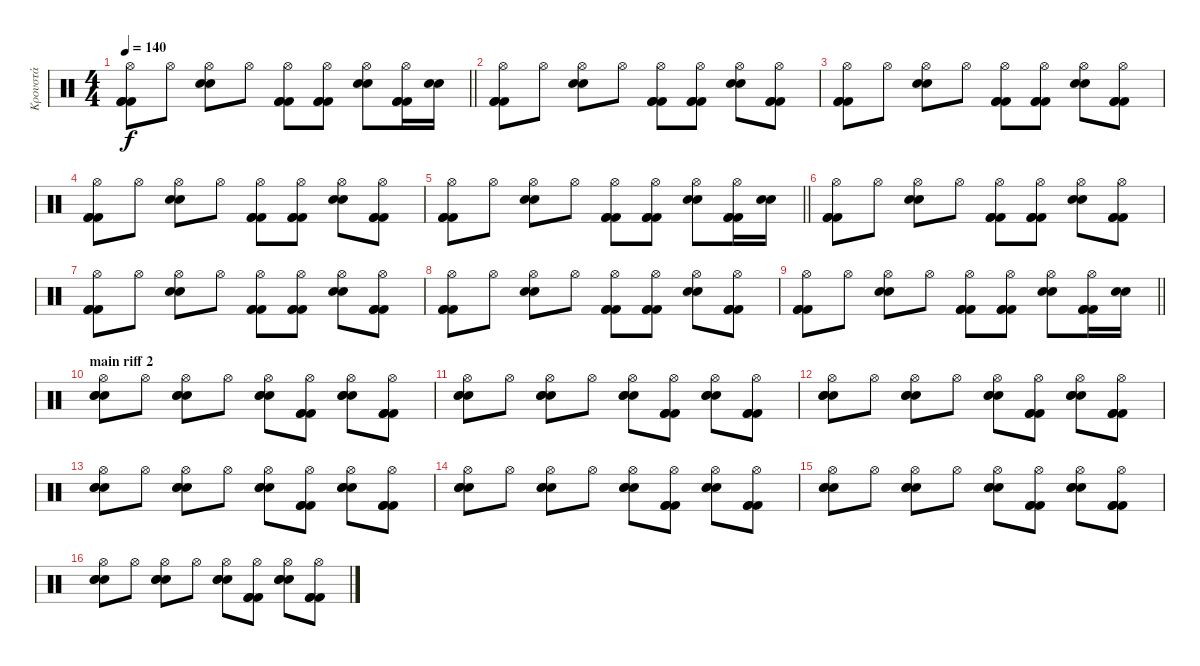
\track ("Κρουστά" "Κρουστά") {instrument percussion}
\staff {score}
\articulation defaults
\ts (4 4)
\tempo 140
\clef neutral
\barLineRight lightlight
\ks c
("Kick (hit) 2" "Hi-Hat (open)" "Kick (hit) 2" "Kick (hit) 2").8{dy f} "Hi-Hat (open)".8 ("Electric Snare (hit)" "Hi-Hat (open)" "Electric Snare (hit)").8 "Hi-Hat (open)".8 ("Kick (hit) 2" "Kick (hit) 2" "Kick (hit) 2" "Hi-Hat (open)").8 ("Kick (hit) 2" "Kick (hit) 2" "Kick (hit) 2" "Hi-Hat (open)").8 ("Electric Snare (hit)" "Electric Snare (hit)" "Hi-Hat (open)").8 ("Kick (hit) 2" "Kick (hit) 2" "Kick (hit) 2" "Hi-Hat (open)").16 ("Electric Snare (hit)" "Electric Snare (hit)").16 |
("Kick (hit) 2" "Hi-Hat (open)" "Kick (hit) 2" "Kick (hit) 2").8 "Hi-Hat (open)".8 ("Electric Snare (hit)" "Hi-Hat (open)" "Electric Snare (hit)").8 "Hi-Hat (open)".8 ("Kick (hit) 2" "Kick (hit) 2" "Kick (hit) 2" "Hi-Hat (open)").8 ("Kick (hit) 2" "Kick (hit) 2" "Kick (hit) 2" "Hi-Hat (open)").8 ("Electric Snare (hit)" "Electric Snare (hit)" "Hi-Hat (open)").8 ("Kick (hit) 2" "Kick (hit) 2" "Kick (hit) 2" "Hi-Hat (open)").8 |
("Kick (hit) 2" "Hi-Hat (open)" "Kick (hit) 2" "Kick (hit) 2").8 "Hi-Hat (open)".8 ("Electric Snare (hit)" "Hi-Hat (open)" "Electric Snare (hit)").8 "Hi-Hat (open)".8 ("Kick (hit) 2" "Kick (hit) 2" "Kick (hit) 2" "Hi-Hat (open)").8 ("Kick (hit) 2" "Kick (hit) 2" "Kick (hit) 2" "Hi-Hat (open)").8 ("Electric Snare (hit)" "Electric Snare (hit)" "Hi-Hat (open)").8 ("Kick (hit) 2" "Kick (hit) 2" "Kick (hit) 2" "Hi-Hat (open)").8 |
("Kick (hit) 2" "Hi-Hat (open)" "Kick (hit) 2" "Kick (hit) 2").8 "Hi-Hat (open)".8 ("Electric Snare (hit)" "Hi-Hat (open)" "Electric Snare (hit)").8 "Hi-Hat (open)".8 ("Kick (hit) 2" "Kick (hit) 2" "Kick (hit) 2" "Hi-Hat (open)").8 ("Kick (hit) 2" "Kick (hit) 2" "Kick (hit) 2" "Hi-Hat (open)").8 ("Electric Snare (hit)" "Electric Snare (hit)" "Hi-Hat (open)").8 ("Kick (hit) 2" "Kick (hit) 2" "Kick (hit) 2" "Hi-Hat (open)").8 |
\barLineRight lightlight
("Kick (hit) 2" "Hi-Hat (open)" "Kick (hit) 2" "Kick (hit) 2").8 "Hi-Hat (open)".8 ("Electric Snare (hit)" "Hi-Hat (open)" "Electric Snare (hit)").8 "Hi-Hat (open)".8 ("Kick (hit) 2" "Kick (hit) 2" "Kick (hit) 2" "Hi-Hat (open)").8 ("Kick (hit) 2" "Kick (hit) 2" "Kick (hit) 2" "Hi-Hat (open)").8 ("Electric Snare (hit)" "Electric Snare (hit)" "Hi-Hat (open)").8 ("Kick (hit) 2" "Kick (hit) 2" "Kick (hit) 2" "Hi-Hat (open)").16 ("Electric Snare (hit)" "Electric Snare (hit)").16 |
("Kick (hit) 2" "Hi-Hat (open)" "Kick (hit) 2" "Kick (hit) 2").8 "Hi-Hat (open)".8 ("Electric Snare (hit)" "Hi-Hat (open)" "Electric Snare (hit)").8 "Hi-Hat (open)".8 ("Kick (hit) 2" "Kick (hit) 2" "Kick (hit) 2" "Hi-Hat (open)").8 ("Kick (hit) 2" "Kick (hit) 2" "Kick (hit) 2" "Hi-Hat (open)").8 ("Electric Snare (hit)" "Electric Snare (hit)" "Hi-Hat (open)").8 ("Kick (hit) 2" "Kick (hit) 2" "Kick (hit) 2" "Hi-Hat (open)").8 |
("Kick (hit) 2" "Hi-Hat (open)" "Kick (hit) 2" "Kick (hit) 2").8 "Hi-Hat (open)".8 ("Electric Snare (hit)" "Hi-Hat (open)" "Electric Snare (hit)").8 "Hi-Hat (open)".8 ("Kick (hit) 2" "Kick (hit) 2" "Kick (hit) 2" "Hi-Hat (open)").8 ("Kick (hit) 2" "Kick (hit) 2" "Kick (hit) 2" "Hi-Hat (open)").8 ("Electric Snare (hit)" "Electric Snare (hit)" "Hi-Hat (open)").8 ("Kick (hit) 2" "Kick (hit) 2" "Kick (hit) 2" "Hi-Hat (open)").8 |
("Kick (hit) 2" "Hi-Hat (open)" "Kick (hit) 2" "Kick (hit) 2").8 "Hi-Hat (open)".8 ("Electric Snare (hit)" "Hi-Hat (open)" "Electric Snare (hit)").8 "Hi-Hat (open)".8 ("Kick (hit) 2" "Kick (hit) 2" "Kick (hit) 2" "Hi-Hat (open)").8 ("Kick (hit) 2" "Kick (hit) 2" "Kick (hit) 2" "Hi-Hat (open)").8 ("Electric Snare (hit)" "Electric Snare (hit)" "Hi-Hat (open)").8 ("Kick (hit) 2" "Kick (hit) 2" "Kick (hit) 2" "Hi-Hat (open)").8 |
\barLineRight lightlight
("Kick (hit) 2" "Hi-Hat (open)" "Kick (hit) 2" "Kick (hit) 2").8 "Hi-Hat (open)".8 ("Electric Snare (hit)" "Hi-Hat (open)" "Electric Snare (hit)").8 "Hi-Hat (open)".8 ("Kick (hit) 2" "Kick (hit) 2" "Kick (hit) 2" "Hi-Hat (open)").8 ("Kick (hit) 2" "Kick (hit) 2" "Kick (hit) 2" "Hi-Hat (open)").8 ("Electric Snare (hit)" "Electric Snare (hit)" "Hi-Hat (open)").8 ("Kick (hit) 2" "Kick (hit) 2" "Kick (hit) 2" "Hi-Hat (open)").16 ("Electric Snare (hit)" "Electric Snare (hit)").16 |
\section ("" "main riff 2")
("Electric Snare (hit)" "Electric Snare (hit)" "Electric Snare (hit)" "Hi-Hat (open)").8 "Hi-Hat (open)".8 ("Electric Snare (hit)" "Electric Snare (hit)" "Electric Snare (hit)" "Hi-Hat (open)").8 "Hi-Hat (open)".8 ("Electric Snare (hit)" "Electric Snare (hit)" "Electric Snare (hit)" "Hi-Hat (open)").8 ("Kick (hit) 2" "Kick (hit) 2" "Kick (hit) 2" "Hi-Hat (open)").8 ("Electric Snare (hit)" "Electric Snare (hit)" "Electric Snare (hit)" "Hi-Hat (open)").8 ("Kick (hit) 2" "Kick (hit) 2" "Kick (hit) 2" "Hi-Hat (open)").8 |
("Electric Snare (hit)" "Electric Snare (hit)" "Electric Snare (hit)" "Hi-Hat (open)").8 "Hi-Hat (open)".8 ("Electric Snare (hit)" "Electric Snare (hit)" "Electric Snare (hit)" "Hi-Hat (open)").8 "Hi-Hat (open)".8 ("Electric Snare (hit)" "Electric Snare (hit)" "Electric Snare (hit)" "Hi-Hat (open)").8 ("Kick (hit) 2" "Kick (hit) 2" "Kick (hit) 2" "Hi-Hat (open)").8 ("Electric Snare (hit)" "Electric Snare (hit)" "Electric Snare (hit)" "Hi-Hat (open)").8 ("Kick (hit) 2" "Kick (hit) 2" "Kick (hit) 2" "Hi-Hat (open)").8 |
("Electric Snare (hit)" "Electric Snare (hit)" "Electric Snare (hit)" "Hi-Hat (open)").8 "Hi-Hat (open)".8 ("Electric Snare (hit)" "Electric Snare (hit)" "Electric Snare (hit)" "Hi-Hat (open)").8 "Hi-Hat (open)".8 ("Electric Snare (hit)" "Electric Snare (hit)" "Electric Snare (hit)" "Hi-Hat (open)").8 ("Kick (hit) 2" "Kick (hit) 2" "Kick (hit) 2" "Hi-Hat (open)").8 ("Electric Snare (hit)" "Electric Snare (hit)" "Electric Snare (hit)" "Hi-Hat (open)").8 ("Kick (hit) 2" "Kick (hit) 2" "Kick (hit) 2" "Hi-Hat (open)").8 |
("Electric Snare (hit)" "Electric Snare (hit)" "Electric Snare (hit)" "Hi-Hat (open)").8 "Hi-Hat (open)".8 ("Electric Snare (hit)" "Electric Snare (hit)" "Electric Snare (hit)" "Hi-Hat (open)").8 "Hi-Hat (open)".8 ("Electric Snare (hit)" "Electric Snare (hit)" "Electric Snare (hit)" "Hi-Hat (open)").8 ("Kick (hit) 2" "Kick (hit) 2" "Kick (hit) 2" "Hi-Hat (open)").8 ("Electric Snare (hit)" "Electric Snare (hit)" "Electric Snare (hit)" "Hi-Hat (open)").8 ("Kick (hit) 2" "Kick (hit) 2" "Kick (hit) 2" "Hi-Hat (open)").8 |
("Electric Snare (hit)" "Electric Snare (hit)" "Electric Snare (hit)" "Hi-Hat (open)").8 "Hi-Hat (open)".8 ("Electric Snare (hit)" "Electric Snare (hit)" "Electric Snare (hit)" "Hi-Hat (open)").8 "Hi-Hat (open)".8 ("Electric Snare (hit)" "Electric Snare (hit)" "Electric Snare (hit)" "Hi-Hat (open)").8 ("Kick (hit) 2" "Kick (hit) 2" "Kick (hit) 2" "Hi-Hat (open)").8 ("Electric Snare (hit)" "Electric Snare (hit)" "Electric Snare (hit)" "Hi-Hat (open)").8 ("Kick (hit) 2" "Kick (hit) 2" "Kick (hit) 2" "Hi-Hat (open)").8 |
("Electric Snare (hit)" "Electric Snare (hit)" "Electric Snare (hit)" "Hi-Hat (open)").8 "Hi-Hat (open)".8 ("Electric Snare (hit)" "Electric Snare (hit)" "Electric Snare (hit)" "Hi-Hat (open)").8 "Hi-Hat (open)".8 ("Electric Snare (hit)" "Electric Snare (hit)" "Electric Snare (hit)" "Hi-Hat (open)").8 ("Kick (hit) 2" "Kick (hit) 2" "Kick (hit) 2" "Hi-Hat (open)").8 ("Electric Snare (hit)" "Electric Snare (hit)" "Electric Snare (hit)" "Hi-Hat (open)").8 ("Kick (hit) 2" "Kick (hit) 2" "Kick (hit) 2" "Hi-Hat (open)").8 |
("Electric Snare (hit)" "Electric Snare (hit)" "Electric Snare (hit)" "Hi-Hat (open)").8 "Hi-Hat (open)".8 ("Electric Snare (hit)" "Electric Snare (hit)" "Electric Snare (hit)" "Hi-Hat (open)").8 "Hi-Hat (open)".8 ("Electric Snare (hit)" "Electric Snare (hit)" "Electric Snare (hit)" "Hi-Hat (open)").8 ("Kick (hit) 2" "Kick (hit) 2" "Kick (hit) 2" "Hi-Hat (open)").8 ("Electric Snare (hit)" "Electric Snare (hit)" "Electric Snare (hit)" "Hi-Hat (open)").8 ("Kick (hit) 2" "Kick (hit) 2" "Kick (hit) 2" "Hi-Hat (open)").8
